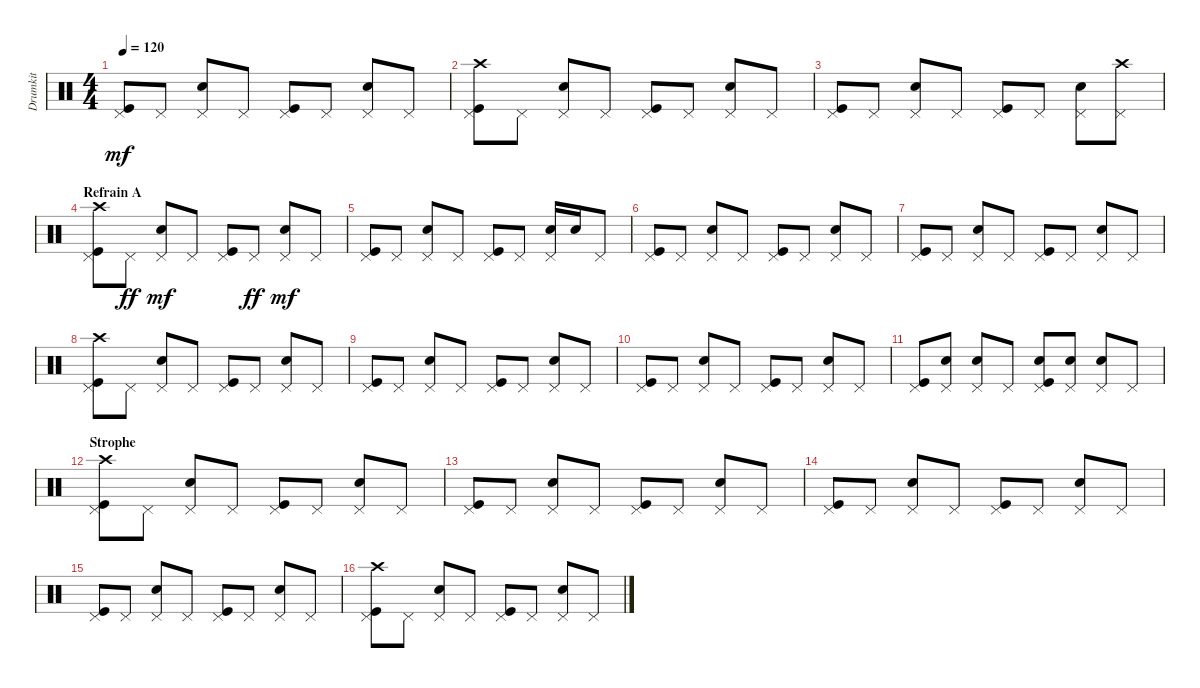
\track ("Drumkit" "Drumkit") {instrument percussion}
\staff {score}
\articulation defaults
\ts (4 4)
\tempo 120
\clef neutral
\ks c
("Kick (hit)" "Pedal Hi-Hat (hit)").8{dy mf} "Pedal Hi-Hat (hit)".8 ("Pedal Hi-Hat (hit)" "Snare (hit) 2").8 "Pedal Hi-Hat (hit)".8 ("Kick (hit)" "Pedal Hi-Hat (hit)").8 "Pedal Hi-Hat (hit)".8 ("Pedal Hi-Hat (hit)" "Snare (hit) 2").8 "Pedal Hi-Hat (hit)".8 |
("Kick (hit)" "Pedal Hi-Hat (hit)" "Crash high (hit)").8 "Pedal Hi-Hat (hit)".8 ("Pedal Hi-Hat (hit)" "Snare (hit) 2").8 "Pedal Hi-Hat (hit)".8 ("Kick (hit)" "Pedal Hi-Hat (hit)").8 "Pedal Hi-Hat (hit)".8 ("Pedal Hi-Hat (hit)" "Snare (hit) 2").8 "Pedal Hi-Hat (hit)".8 |
("Kick (hit)" "Pedal Hi-Hat (hit)").8 "Pedal Hi-Hat (hit)".8 ("Pedal Hi-Hat (hit)" "Snare (hit) 2").8 "Pedal Hi-Hat (hit)".8 ("Kick (hit)" "Pedal Hi-Hat (hit)").8 "Pedal Hi-Hat (hit)".8 ("Pedal Hi-Hat (hit)" "Snare (hit) 2").8 ("Pedal Hi-Hat (hit)" "Crash high (hit)").8 |
\section ("" "Refrain A")
("Kick (hit)" "Pedal Hi-Hat (hit)" "Crash high (hit)").8 "Pedal Hi-Hat (hit)".8{dy ff} ("Pedal Hi-Hat (hit)" "Snare (hit) 2").8{dy mf} "Pedal Hi-Hat (hit)".8 ("Kick (hit)" "Pedal Hi-Hat (hit)").8 "Pedal Hi-Hat (hit)".8{dy ff} ("Pedal Hi-Hat (hit)" "Snare (hit) 2").8{dy mf} "Pedal Hi-Hat (hit)".8 |
("Kick (hit)" "Pedal Hi-Hat (hit)").8 "Pedal Hi-Hat (hit)".8 ("Pedal Hi-Hat (hit)" "Snare (hit) 2").8 "Pedal Hi-Hat (hit)".8 ("Kick (hit)" "Pedal Hi-Hat (hit)").8 "Pedal Hi-Hat (hit)".8 ("Pedal Hi-Hat (hit)" "Snare (hit) 2").16 "Snare (hit) 2".16 "Pedal Hi-Hat (hit)".8 |
("Kick (hit)" "Pedal Hi-Hat (hit)").8 "Pedal Hi-Hat (hit)".8 ("Pedal Hi-Hat (hit)" "Snare (hit) 2").8 "Pedal Hi-Hat (hit)".8 ("Kick (hit)" "Pedal Hi-Hat (hit)").8 "Pedal Hi-Hat (hit)".8 ("Pedal Hi-Hat (hit)" "Snare (hit) 2").8 "Pedal Hi-Hat (hit)".8 |
("Kick (hit)" "Pedal Hi-Hat (hit)").8 "Pedal Hi-Hat (hit)".8 ("Pedal Hi-Hat (hit)" "Snare (hit) 2").8 "Pedal Hi-Hat (hit)".8 ("Kick (hit)" "Pedal Hi-Hat (hit)").8 "Pedal Hi-Hat (hit)".8 ("Pedal Hi-Hat (hit)" "Snare (hit) 2").8 "Pedal Hi-Hat (hit)".8 |
("Kick (hit)" "Crash high (hit)" "Pedal Hi-Hat (hit)").8 "Pedal Hi-Hat (hit)".8 ("Pedal Hi-Hat (hit)" "Snare (hit) 2").8 "Pedal Hi-Hat (hit)".8 ("Kick (hit)" "Pedal Hi-Hat (hit)").8 "Pedal Hi-Hat (hit)".8 ("Pedal Hi-Hat (hit)" "Snare (hit) 2").8 "Pedal Hi-Hat (hit)".8 |
("Kick (hit)" "Pedal Hi-Hat (hit)").8 "Pedal Hi-Hat (hit)".8 ("Pedal Hi-Hat (hit)" "Snare (hit) 2").8 "Pedal Hi-Hat (hit)".8 ("Kick (hit)" "Pedal Hi-Hat (hit)").8 "Pedal Hi-Hat (hit)".8 ("Pedal Hi-Hat (hit)" "Snare (hit) 2").8 "Pedal Hi-Hat (hit)".8 |
("Kick (hit)" "Pedal Hi-Hat (hit)").8 "Pedal Hi-Hat (hit)".8 ("Pedal Hi-Hat (hit)" "Snare (hit) 2").8 "Pedal Hi-Hat (hit)".8 ("Kick (hit)" "Pedal Hi-Hat (hit)").8 "Pedal Hi-Hat (hit)".8 ("Pedal Hi-Hat (hit)" "Snare (hit) 2").8 "Pedal Hi-Hat (hit)".8 |
("Kick (hit)" "Pedal Hi-Hat (hit)").8 ("Pedal Hi-Hat (hit)" "Snare (hit) 2").8 ("Pedal Hi-Hat (hit)" "Snare (hit) 2").8 "Pedal Hi-Hat (hit)".8 ("Pedal Hi-Hat (hit)" "Kick (hit)" "Snare (hit) 2").8 ("Pedal Hi-Hat (hit)" "Snare (hit) 2").8 ("Pedal Hi-Hat (hit)" "Snare (hit) 2").8 "Pedal Hi-Hat (hit)".8 |
\section ("" "Strophe")
("Kick (hit)" "Crash high (hit)" "Pedal Hi-Hat (hit)").8 "Pedal Hi-Hat (hit)".8 ("Pedal Hi-Hat (hit)" "Snare (hit) 2").8 "Pedal Hi-Hat (hit)".8 ("Kick (hit)" "Pedal Hi-Hat (hit)").8 "Pedal Hi-Hat (hit)".8 ("Pedal Hi-Hat (hit)" "Snare (hit) 2").8 "Pedal Hi-Hat (hit)".8 |
("Kick (hit)" "Pedal Hi-Hat (hit)").8 "Pedal Hi-Hat (hit)".8 ("Pedal Hi-Hat (hit)" "Snare (hit) 2").8 "Pedal Hi-Hat (hit)".8 ("Kick (hit)" "Pedal Hi-Hat (hit)").8 "Pedal Hi-Hat (hit)".8 ("Pedal Hi-Hat (hit)" "Snare (hit) 2").8 "Pedal Hi-Hat (hit)".8 |
("Kick (hit)" "Pedal Hi-Hat (hit)").8 "Pedal Hi-Hat (hit)".8 ("Pedal Hi-Hat (hit)" "Snare (hit) 2").8 "Pedal Hi-Hat (hit)".8 ("Kick (hit)" "Pedal Hi-Hat (hit)").8 "Pedal Hi-Hat (hit)".8 ("Pedal Hi-Hat (hit)" "Snare (hit) 2").8 "Pedal Hi-Hat (hit)".8 |
("Kick (hit)" "Pedal Hi-Hat (hit)").8 "Pedal Hi-Hat (hit)".8 ("Pedal Hi-Hat (hit)" "Snare (hit) 2").8 "Pedal Hi-Hat (hit)".8 ("Kick (hit)" "Pedal Hi-Hat (hit)").8 "Pedal Hi-Hat (hit)".8 ("Pedal Hi-Hat (hit)" "Snare (hit) 2").8 "Pedal Hi-Hat (hit)".8 |
("Kick (hit)" "Crash high (hit)" "Pedal Hi-Hat (hit)").8 "Pedal Hi-Hat (hit)".8 ("Pedal Hi-Hat (hit)" "Snare (hit) 2").8 "Pedal Hi-Hat (hit)".8 ("Kick (hit)" "Pedal Hi-Hat (hit)").8 "Pedal Hi-Hat (hit)".8 ("Pedal Hi-Hat (hit)" "Snare (hit) 2").8 "Pedal Hi-Hat (hit)".8
